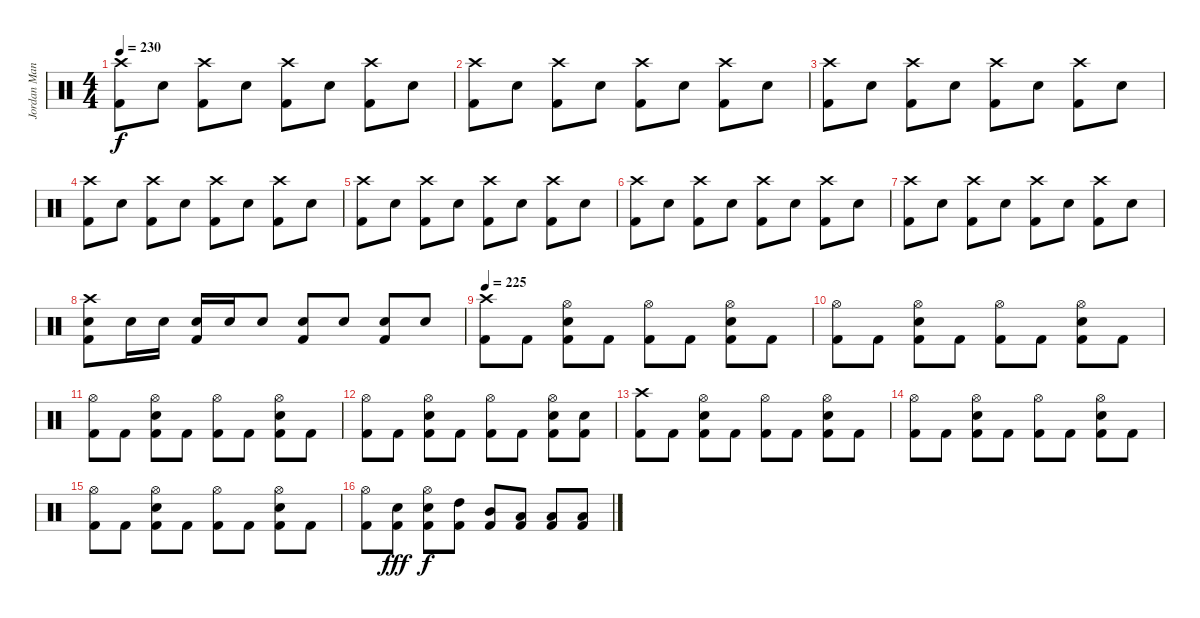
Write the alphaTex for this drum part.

\track ("Jordan Mancino" "Jordan Man") {instrument percussion}
\staff {score}
\articulation defaults
\ts (4 4)
\tempo 230
\clef neutral
\ks c
("Crash high (hit)" "Kick (hit) 2").8{dy f} "Electric Snare (hit)".8 ("Crash high (hit)" "Kick (hit) 2").8 "Electric Snare (hit)".8 ("Crash high (hit)" "Kick (hit) 2").8 "Electric Snare (hit)".8 ("Crash high (hit)" "Kick (hit) 2").8 "Electric Snare (hit)".8 |
("Crash high (hit)" "Kick (hit) 2").8 "Electric Snare (hit)".8 ("Crash high (hit)" "Kick (hit) 2").8 "Electric Snare (hit)".8 ("Crash high (hit)" "Kick (hit) 2").8 "Electric Snare (hit)".8 ("Crash high (hit)" "Kick (hit) 2").8 "Electric Snare (hit)".8 |
("Crash high (hit)" "Kick (hit) 2").8 "Electric Snare (hit)".8 ("Crash high (hit)" "Kick (hit) 2").8 "Electric Snare (hit)".8 ("Crash high (hit)" "Kick (hit) 2").8 "Electric Snare (hit)".8 ("Crash high (hit)" "Kick (hit) 2").8 "Electric Snare (hit)".8 |
("Crash high (hit)" "Kick (hit) 2").8 "Electric Snare (hit)".8 ("Crash high (hit)" "Kick (hit) 2").8 "Electric Snare (hit)".8 ("Crash high (hit)" "Kick (hit) 2").8 "Electric Snare (hit)".8 ("Crash high (hit)" "Kick (hit) 2").8 "Electric Snare (hit)".8 |
("Crash high (hit)" "Kick (hit) 2").8 "Electric Snare (hit)".8 ("Crash high (hit)" "Kick (hit) 2").8 "Electric Snare (hit)".8 ("Crash high (hit)" "Kick (hit) 2").8 "Electric Snare (hit)".8 ("Crash high (hit)" "Kick (hit) 2").8 "Electric Snare (hit)".8 |
("Crash high (hit)" "Kick (hit) 2").8 "Electric Snare (hit)".8 ("Crash high (hit)" "Kick (hit) 2").8 "Electric Snare (hit)".8 ("Crash high (hit)" "Kick (hit) 2").8 "Electric Snare (hit)".8 ("Crash high (hit)" "Kick (hit) 2").8 "Electric Snare (hit)".8 |
("Crash high (hit)" "Kick (hit) 2").8 "Electric Snare (hit)".8 ("Crash high (hit)" "Kick (hit) 2").8 "Electric Snare (hit)".8 ("Crash high (hit)" "Kick (hit) 2").8 "Electric Snare (hit)".8 ("Crash high (hit)" "Kick (hit) 2").8 "Electric Snare (hit)".8 |
("Crash high (hit)" "Electric Snare (hit)" "Kick (hit) 2").8 "Electric Snare (hit)".16 "Electric Snare (hit)".16 ("Electric Snare (hit)" "Kick (hit) 2").16 "Electric Snare (hit)".16 "Electric Snare (hit)".8 ("Electric Snare (hit)" "Kick (hit) 2").8 "Electric Snare (hit)".8 ("Electric Snare (hit)" "Kick (hit) 2").8 "Electric Snare (hit)".8 |
\tempo 225
("Crash high (hit)" "Kick (hit) 2").8 "Kick (hit) 2".8 ("Hi-Hat (open)" "Electric Snare (hit)" "Kick (hit) 2").8 "Kick (hit) 2".8 ("Hi-Hat (open)" "Kick (hit) 2").8 "Kick (hit) 2".8 ("Hi-Hat (open)" "Electric Snare (hit)" "Kick (hit) 2").8 "Kick (hit) 2".8 |
("Hi-Hat (open)" "Kick (hit) 2").8 "Kick (hit) 2".8 ("Hi-Hat (open)" "Electric Snare (hit)" "Kick (hit) 2").8 "Kick (hit) 2".8 ("Hi-Hat (open)" "Kick (hit) 2").8 "Kick (hit) 2".8 ("Hi-Hat (open)" "Electric Snare (hit)" "Kick (hit) 2").8 "Kick (hit) 2".8 |
("Hi-Hat (open)" "Kick (hit) 2").8 "Kick (hit) 2".8 ("Hi-Hat (open)" "Electric Snare (hit)" "Kick (hit) 2").8 "Kick (hit) 2".8 ("Hi-Hat (open)" "Kick (hit) 2").8 "Kick (hit) 2".8 ("Hi-Hat (open)" "Electric Snare (hit)" "Kick (hit) 2").8 "Kick (hit) 2".8 |
("Hi-Hat (open)" "Kick (hit) 2").8 "Kick (hit) 2".8 ("Hi-Hat (open)" "Electric Snare (hit)" "Kick (hit) 2").8 "Kick (hit) 2".8 ("Hi-Hat (open)" "Kick (hit) 2").8 "Kick (hit) 2".8 ("Hi-Hat (open)" "Electric Snare (hit)" "Kick (hit) 2").8 ("Electric Snare (hit)" "Kick (hit) 2").8 |
("Crash high (hit)" "Kick (hit) 2").8 "Kick (hit) 2".8 ("Hi-Hat (open)" "Electric Snare (hit)" "Kick (hit) 2").8 "Kick (hit) 2".8 ("Hi-Hat (open)" "Kick (hit) 2").8 "Kick (hit) 2".8 ("Hi-Hat (open)" "Electric Snare (hit)" "Kick (hit) 2").8 "Kick (hit) 2".8 |
("Hi-Hat (open)" "Kick (hit) 2").8 "Kick (hit) 2".8 ("Hi-Hat (open)" "Electric Snare (hit)" "Kick (hit) 2").8 "Kick (hit) 2".8 ("Hi-Hat (open)" "Kick (hit) 2").8 "Kick (hit) 2".8 ("Hi-Hat (open)" "Electric Snare (hit)" "Kick (hit) 2").8 "Kick (hit) 2".8 |
("Hi-Hat (open)" "Kick (hit) 2").8 "Kick (hit) 2".8 ("Hi-Hat (open)" "Electric Snare (hit)" "Kick (hit) 2").8 "Kick (hit) 2".8 ("Hi-Hat (open)" "Kick (hit) 2").8 "Kick (hit) 2".8 ("Hi-Hat (open)" "Electric Snare (hit)" "Kick (hit) 2").8 "Kick (hit) 2".8 |
("Hi-Hat (open)" "Kick (hit) 2").8 ("Electric Snare (hit)" "Kick (hit) 2").8{dy fff} ("Hi-Hat (open)" "Electric Snare (hit)" "Kick (hit) 2").8{dy f} ("High Tom (hit)" "Kick (hit) 2").8 ("Mid Tom (hit)" "Kick (hit) 2").8 ("Low Tom (hit)" "Kick (hit) 2").8 ("Low Tom (hit)" "Kick (hit) 2").8 ("Low Floor Tom (hit)" "Kick (hit) 2").8
